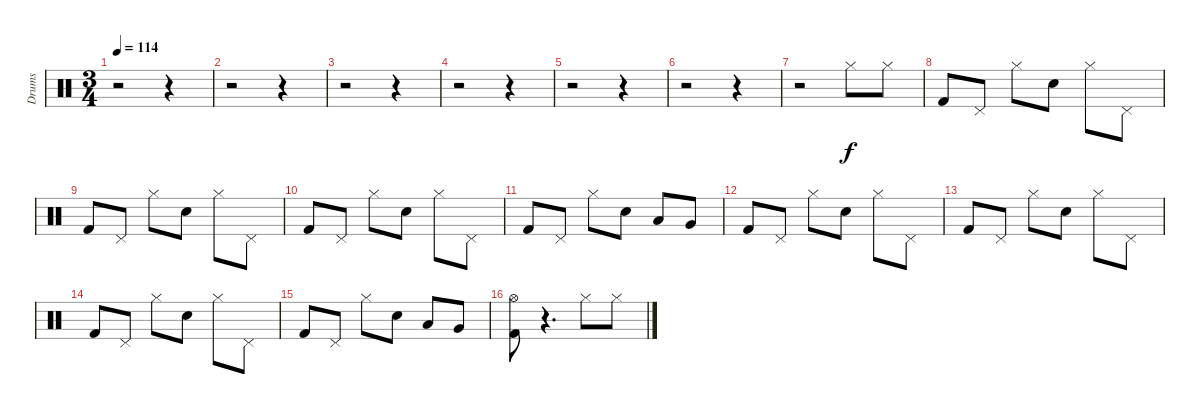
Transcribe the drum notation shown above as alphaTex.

\track ("Drums" "Drums") {instrument percussion}
\staff {score}
\articulation defaults
\ts (3 4)
\tempo 114
\clef neutral
\ks c
r.2{dy f} r.4 |
r.2 r.4 |
r.2 r.4 |
r.2 r.4 |
r.2 r.4 |
r.2 r.4 |
r.2 "Hi-Hat (closed)".8 "Hi-Hat (closed)".8 |
"Kick (hit) 2".8 "Pedal Hi-Hat (hit)".8 "Hi-Hat (closed)".8 "Electric Snare (hit)".8 "Hi-Hat (closed)".8 "Pedal Hi-Hat (hit)".8 |
"Kick (hit) 2".8 "Pedal Hi-Hat (hit)".8 "Hi-Hat (closed)".8 "Electric Snare (hit)".8 "Hi-Hat (closed)".8 "Pedal Hi-Hat (hit)".8 |
"Kick (hit) 2".8 "Pedal Hi-Hat (hit)".8 "Hi-Hat (closed)".8 "Electric Snare (hit)".8 "Hi-Hat (closed)".8 "Pedal Hi-Hat (hit)".8 |
"Kick (hit) 2".8 "Pedal Hi-Hat (hit)".8 "Hi-Hat (closed)".8 "Electric Snare (hit)".8 "Low Tom (hit)".8 "Very Low Tom (hit)".8 |
"Kick (hit) 2".8 "Pedal Hi-Hat (hit)".8 "Hi-Hat (closed)".8 "Electric Snare (hit)".8 "Hi-Hat (closed)".8 "Pedal Hi-Hat (hit)".8 |
"Kick (hit) 2".8 "Pedal Hi-Hat (hit)".8 "Hi-Hat (closed)".8 "Electric Snare (hit)".8 "Hi-Hat (closed)".8 "Pedal Hi-Hat (hit)".8 |
"Kick (hit) 2".8 "Pedal Hi-Hat (hit)".8 "Hi-Hat (closed)".8 "Electric Snare (hit)".8 "Hi-Hat (closed)".8 "Pedal Hi-Hat (hit)".8 |
"Kick (hit) 2".8 "Pedal Hi-Hat (hit)".8 "Hi-Hat (closed)".8 "Electric Snare (hit)".8 "Low Tom (hit)".8 "Very Low Tom (hit)".8 |
("Hi-Hat (open)" "Kick (hit) 2").8 r.4{d} "Hi-Hat (closed)".8 "Hi-Hat (closed)".8
